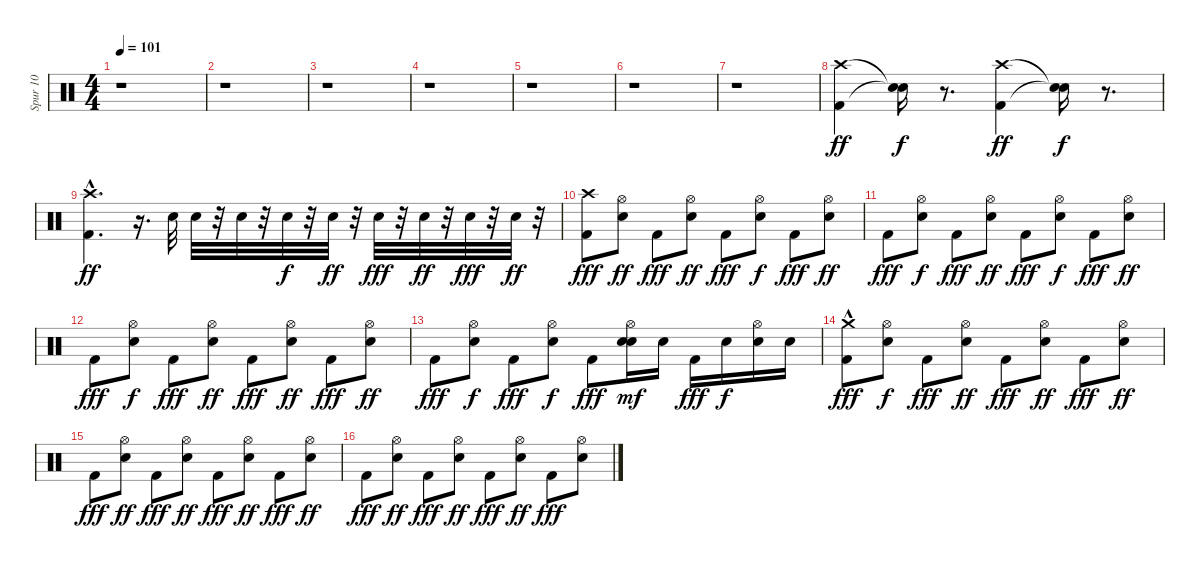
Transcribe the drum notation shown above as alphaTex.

\track ("Spur 10" "Spur 10") {instrument percussion}
\staff {score}
\articulation defaults
\ts (4 4)
\tempo 101
\clef neutral
\ks c
r.1{dy ff} |
r.1 |
r.1 |
r.1 |
r.1 |
r.1 |
r.1 |
("Crash high (hit)" "Kick (hit) 2").4{volume 12 balance 8} ("Snare (hit)"{t} "Snare (hit)"{t}).16{dy f} r.8{d} ("Crash high (hit)" "Kick (hit) 2").4{dy ff} ("Snare (hit)"{t} "Snare (hit)"{t}).16{dy f} r.8{d} |
("Crash high (hit)" "Kick (hit) 2"{hac}).4{d dy ff} r.16{d} "Snare (hit) 2".32 "Snare (hit) 2".32 r.32 "Snare (hit) 2".32 r.32 "Snare (hit) 2".32{dy f} r.32 "Snare (hit) 2".32{dy ff} r.32 "Snare (hit) 2".32{dy fff} r.32 "Snare (hit) 2".32{dy ff} r.32 "Snare (hit) 2".32{dy fff} r.32 "Snare (hit) 2".32{dy ff} r.32 |
("Crash high (hit)" "Kick (hit) 2").8{dy fff} ("Snare (hit) 2" "Hi-Hat (open)").8{dy ff} "Kick (hit) 2".8{dy fff} ("Snare (hit) 2" "Hi-Hat (open)").8{dy ff} "Kick (hit) 2".8{dy fff} ("Hi-Hat (open)" "Snare (hit) 2").8{dy f} "Kick (hit) 2".8{dy fff} ("Hi-Hat (open)" "Snare (hit) 2").8{dy ff} |
"Kick (hit) 2".8{dy fff} ("Snare (hit) 2" "Hi-Hat (open)").8{dy f} "Kick (hit) 2".8{dy fff} ("Snare (hit) 2" "Hi-Hat (open)").8{dy ff} "Kick (hit) 2".8{dy fff} ("Hi-Hat (open)" "Snare (hit) 2").8{dy f} "Kick (hit) 2".8{dy fff} ("Snare (hit) 2" "Hi-Hat (open)").8{dy ff} |
"Kick (hit) 2".8{dy fff} ("Snare (hit) 2" "Hi-Hat (open)").8{dy f} "Kick (hit) 2".8{dy fff} ("Snare (hit) 2" "Hi-Hat (open)").8{dy ff} "Kick (hit) 2".8{dy fff} ("Snare (hit) 2" "Hi-Hat (open)").8{dy ff} "Kick (hit) 2".8{dy fff} ("Snare (hit) 2" "Hi-Hat (open)").8{dy ff} |
"Kick (hit) 2".8{dy fff} ("Snare (hit) 2" "Hi-Hat (open)").8{dy f} "Kick (hit) 2".8{dy fff} ("Snare (hit) 2" "Hi-Hat (open)").8{dy f} "Kick (hit) 2".8{dy fff} ("Snare (hit) 2" "Snare (hit) 2" "Hi-Hat (open)").16{dy mf} "Snare (hit) 2".16 "Kick (hit) 2".16{dy fff} "Snare (hit) 2".16{dy f} ("Snare (hit) 2" "Hi-Hat (open)").16 "Snare (hit) 2".16 |
("Crash medium (hit)"{hac} "Kick (hit) 2").8{dy fff} ("Snare (hit) 2" "Hi-Hat (open)").8{dy f} "Kick (hit) 2".8{dy fff} ("Snare (hit) 2" "Hi-Hat (open)").8{dy ff} "Kick (hit) 2".8{dy fff} ("Snare (hit) 2" "Hi-Hat (open)").8{dy ff} "Kick (hit) 2".8{dy fff} ("Snare (hit) 2" "Hi-Hat (open)").8{dy ff} |
"Kick (hit) 2".8{dy fff} ("Snare (hit) 2" "Hi-Hat (open)").8{dy ff} "Kick (hit) 2".8{dy fff} ("Snare (hit) 2" "Hi-Hat (open)").8{dy ff} "Kick (hit) 2".8{dy fff} ("Snare (hit) 2" "Hi-Hat (open)").8{dy ff} "Kick (hit) 2".8{dy fff} ("Snare (hit) 2" "Hi-Hat (open)").8{dy ff} |
"Kick (hit) 2".8{dy fff} ("Snare (hit) 2" "Hi-Hat (open)").8{dy ff} "Kick (hit) 2".8{dy fff} ("Hi-Hat (open)" "Snare (hit) 2").8{dy ff} "Kick (hit) 2".8{dy fff} ("Snare (hit) 2" "Hi-Hat (open)").8{dy ff} "Kick (hit) 2".8{dy fff} ("Snare (hit) 2" "Hi-Hat (open)").8
